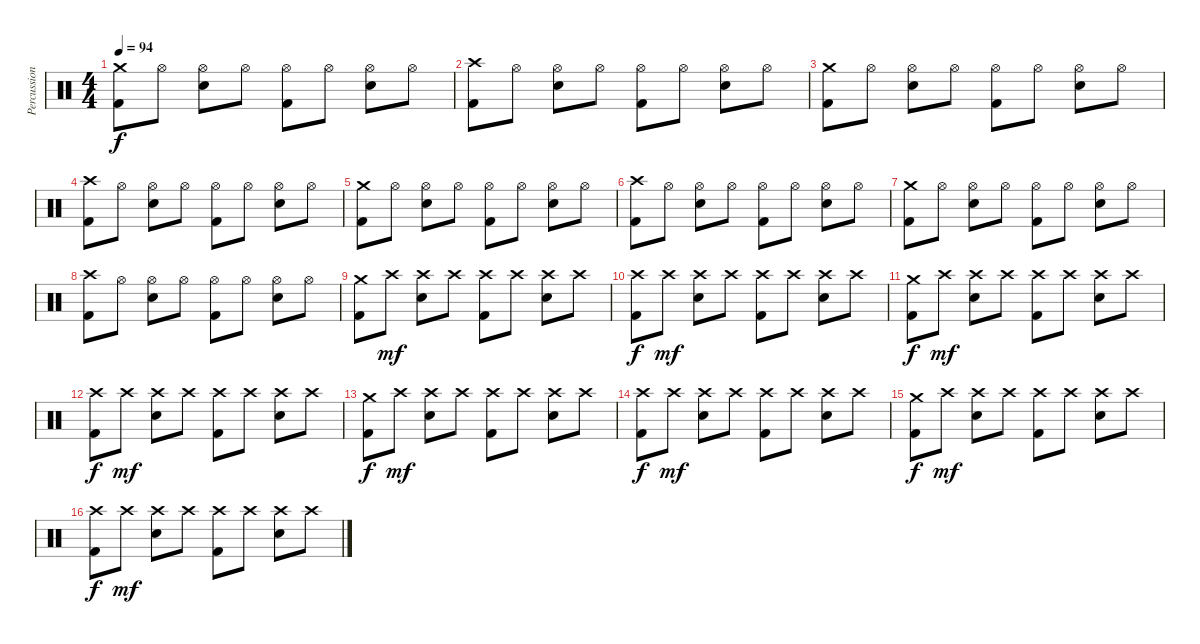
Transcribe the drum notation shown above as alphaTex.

\track ("Percussion" "Percussion") {instrument percussion}
\staff {score}
\articulation defaults
\ts (4 4)
\tempo 94
\clef neutral
\ks c
("Crash medium (hit)" "Kick (hit) 2").8{dy f} "Hi-Hat (open)".8 ("Hi-Hat (open)" "Electric Snare (hit)").8 "Hi-Hat (open)".8 ("Hi-Hat (open)" "Kick (hit) 2").8 "Hi-Hat (open)".8 ("Hi-Hat (open)" "Electric Snare (hit)").8 "Hi-Hat (open)".8 |
("Crash high (hit)" "Kick (hit) 2").8 "Hi-Hat (open)".8 ("Hi-Hat (open)" "Electric Snare (hit)").8 "Hi-Hat (open)".8 ("Hi-Hat (open)" "Kick (hit) 2").8 "Hi-Hat (open)".8 ("Hi-Hat (open)" "Electric Snare (hit)").8 "Hi-Hat (open)".8 |
("Crash medium (hit)" "Kick (hit) 2").8 "Hi-Hat (open)".8 ("Hi-Hat (open)" "Electric Snare (hit)").8 "Hi-Hat (open)".8 ("Hi-Hat (open)" "Kick (hit) 2").8 "Hi-Hat (open)".8 ("Hi-Hat (open)" "Electric Snare (hit)").8 "Hi-Hat (open)".8 |
("Crash high (hit)" "Kick (hit) 2").8 "Hi-Hat (open)".8 ("Hi-Hat (open)" "Electric Snare (hit)").8 "Hi-Hat (open)".8 ("Hi-Hat (open)" "Kick (hit) 2").8 "Hi-Hat (open)".8 ("Hi-Hat (open)" "Electric Snare (hit)").8 "Hi-Hat (open)".8 |
("Crash medium (hit)" "Kick (hit) 2").8 "Hi-Hat (open)".8 ("Hi-Hat (open)" "Electric Snare (hit)").8 "Hi-Hat (open)".8 ("Hi-Hat (open)" "Kick (hit) 2").8 "Hi-Hat (open)".8 ("Hi-Hat (open)" "Electric Snare (hit)").8 "Hi-Hat (open)".8 |
("Crash high (hit)" "Kick (hit) 2").8 "Hi-Hat (open)".8 ("Hi-Hat (open)" "Electric Snare (hit)").8 "Hi-Hat (open)".8 ("Hi-Hat (open)" "Kick (hit) 2").8 "Hi-Hat (open)".8 ("Hi-Hat (open)" "Electric Snare (hit)").8 "Hi-Hat (open)".8 |
("Crash medium (hit)" "Kick (hit) 2").8 "Hi-Hat (open)".8 ("Hi-Hat (open)" "Electric Snare (hit)").8 "Hi-Hat (open)".8 ("Hi-Hat (open)" "Kick (hit) 2").8 "Hi-Hat (open)".8 ("Hi-Hat (open)" "Electric Snare (hit)").8 "Hi-Hat (open)".8 |
("Crash high (hit)" "Kick (hit) 2").8 "Hi-Hat (open)".8 ("Hi-Hat (open)" "Electric Snare (hit)").8 "Hi-Hat (open)".8 ("Hi-Hat (open)" "Kick (hit) 2").8 "Hi-Hat (open)".8 ("Hi-Hat (open)" "Electric Snare (hit)").8 "Hi-Hat (open)".8 |
("Crash medium (hit)" "Kick (hit) 2").8 "Crash high (hit)".8{dy mf} ("Crash high (hit)" "Electric Snare (hit)").8 "Crash high (hit)".8 ("Crash high (hit)" "Kick (hit) 2").8 "Crash high (hit)".8 ("Crash high (hit)" "Electric Snare (hit)").8 "Crash high (hit)".8 |
("Crash high (hit)" "Kick (hit) 2").8{dy f} "Crash high (hit)".8{dy mf} ("Crash high (hit)" "Electric Snare (hit)").8 "Crash high (hit)".8 ("Crash high (hit)" "Kick (hit) 2").8 "Crash high (hit)".8 ("Crash high (hit)" "Electric Snare (hit)").8 "Crash high (hit)".8 |
("Crash medium (hit)" "Kick (hit) 2").8{dy f} "Crash high (hit)".8{dy mf} ("Crash high (hit)" "Electric Snare (hit)").8 "Crash high (hit)".8 ("Crash high (hit)" "Kick (hit) 2").8 "Crash high (hit)".8 ("Crash high (hit)" "Electric Snare (hit)").8 "Crash high (hit)".8 |
("Crash high (hit)" "Kick (hit) 2").8{dy f} "Crash high (hit)".8{dy mf} ("Crash high (hit)" "Electric Snare (hit)").8 "Crash high (hit)".8 ("Crash high (hit)" "Kick (hit) 2").8 "Crash high (hit)".8 ("Crash high (hit)" "Electric Snare (hit)").8 "Crash high (hit)".8 |
("Crash medium (hit)" "Kick (hit) 2").8{dy f} "Crash high (hit)".8{dy mf} ("Crash high (hit)" "Electric Snare (hit)").8 "Crash high (hit)".8 ("Crash high (hit)" "Kick (hit) 2").8 "Crash high (hit)".8 ("Crash high (hit)" "Electric Snare (hit)").8 "Crash high (hit)".8 |
("Crash high (hit)" "Kick (hit) 2").8{dy f} "Crash high (hit)".8{dy mf} ("Crash high (hit)" "Electric Snare (hit)").8 "Crash high (hit)".8 ("Crash high (hit)" "Kick (hit) 2").8 "Crash high (hit)".8 ("Crash high (hit)" "Electric Snare (hit)").8 "Crash high (hit)".8 |
("Crash medium (hit)" "Kick (hit) 2").8{dy f} "Crash high (hit)".8{dy mf} ("Crash high (hit)" "Electric Snare (hit)").8 "Crash high (hit)".8 ("Crash high (hit)" "Kick (hit) 2").8 "Crash high (hit)".8 ("Crash high (hit)" "Electric Snare (hit)").8 "Crash high (hit)".8 |
("Crash high (hit)" "Kick (hit) 2").8{dy f} "Crash high (hit)".8{dy mf} ("Crash high (hit)" "Electric Snare (hit)").8 "Crash high (hit)".8 ("Crash high (hit)" "Kick (hit) 2").8 "Crash high (hit)".8 ("Crash high (hit)" "Electric Snare (hit)").8 "Crash high (hit)".8
